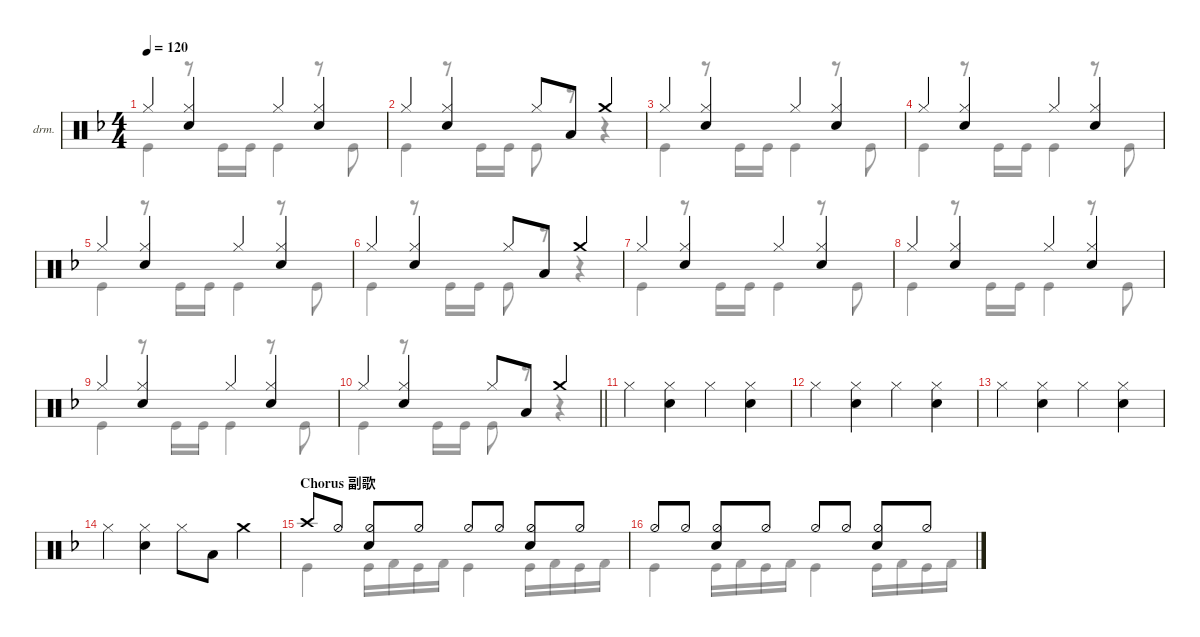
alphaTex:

\defaultSystemsLayout 4
\hideDynamics
\bracketExtendMode nobrackets
\firstSystemTrackNameOrientation horizontal
\track ("Drumkit" "drm.") {mute instrument percussion}
\staff {score}
\articulation defaults
\voice
\ts (4 4)
\tempo 120
\clef neutral
\ks dminor "Hi-Hat (closed)"{acc forcenatural}.4{dy mf}
("Snare (hit) 2"{acc forcenatural} "Hi-Hat (closed)"{acc forcenatural}).4 "Hi-Hat (closed)"{acc forcenatural}.4 ("Hi-Hat (closed)"{acc forcenatural} "Snare (hit) 2"{acc forcenatural}).4 |
"Hi-Hat (closed)"{acc forcenatural}.4 ("Snare (hit) 2"{acc forcenatural} "Hi-Hat (closed)"{acc forcenatural}).4 "Hi-Hat (closed)"{acc forcenatural}.8 "Low Floor Tom (hit)"{acc forcenatural}.8 "Crash medium (hit)"{acc forcenatural}.4 |
"Hi-Hat (closed)"{acc forcenatural}.4 ("Snare (hit) 2"{acc forcenatural} "Hi-Hat (closed)"{acc forcenatural}).4 "Hi-Hat (closed)"{acc forcenatural}.4 ("Hi-Hat (closed)"{acc forcenatural} "Snare (hit) 2"{acc forcenatural}).4 |
"Hi-Hat (closed)"{acc forcenatural}.4 ("Snare (hit) 2"{acc forcenatural} "Hi-Hat (closed)"{acc forcenatural}).4 "Hi-Hat (closed)"{acc forcenatural}.4 ("Hi-Hat (closed)"{acc forcenatural} "Snare (hit) 2"{acc forcenatural}).4 |
"Hi-Hat (closed)"{acc forcenatural}.4 ("Snare (hit) 2"{acc forcenatural} "Hi-Hat (closed)"{acc forcenatural}).4 "Hi-Hat (closed)"{acc forcenatural}.4 ("Hi-Hat (closed)"{acc forcenatural} "Snare (hit) 2"{acc forcenatural}).4 |
"Hi-Hat (closed)"{acc forcenatural}.4 ("Snare (hit) 2"{acc forcenatural} "Hi-Hat (closed)"{acc forcenatural}).4 "Hi-Hat (closed)"{acc forcenatural}.8 "Low Floor Tom (hit)"{acc forcenatural}.8 "Crash medium (hit)"{acc forcenatural}.4 |
"Hi-Hat (closed)"{acc forcenatural}.4 ("Snare (hit) 2"{acc forcenatural} "Hi-Hat (closed)"{acc forcenatural}).4 "Hi-Hat (closed)"{acc forcenatural}.4 ("Hi-Hat (closed)"{acc forcenatural} "Snare (hit) 2"{acc forcenatural}).4 |
"Hi-Hat (closed)"{acc forcenatural}.4 ("Snare (hit) 2"{acc forcenatural} "Hi-Hat (closed)"{acc forcenatural}).4 "Hi-Hat (closed)"{acc forcenatural}.4 ("Hi-Hat (closed)"{acc forcenatural} "Snare (hit) 2"{acc forcenatural}).4 |
"Hi-Hat (closed)"{acc forcenatural}.4 ("Snare (hit) 2"{acc forcenatural} "Hi-Hat (closed)"{acc forcenatural}).4 "Hi-Hat (closed)"{acc forcenatural}.4 ("Hi-Hat (closed)"{acc forcenatural} "Snare (hit) 2"{acc forcenatural}).4 |
\barLineRight lightlight "Hi-Hat (closed)"{acc forcenatural}.4
("Snare (hit) 2"{acc forcenatural} "Hi-Hat (closed)"{acc forcenatural}).4 "Hi-Hat (closed)"{acc forcenatural}.8 "Low Floor Tom (hit)"{acc forcenatural}.8 "Crash medium (hit)"{acc forcenatural}.4 |
"Hi-Hat (closed)"{acc forcenatural}.4 ("Snare (hit) 2"{acc forcenatural} "Hi-Hat (closed)"{acc forcenatural}).4 "Hi-Hat (closed)"{acc forcenatural}.4 ("Hi-Hat (closed)"{acc forcenatural} "Snare (hit) 2"{acc forcenatural}).4 |
"Hi-Hat (closed)"{acc forcenatural}.4 ("Snare (hit) 2"{acc forcenatural} "Hi-Hat (closed)"{acc forcenatural}).4 "Hi-Hat (closed)"{acc forcenatural}.4 ("Hi-Hat (closed)"{acc forcenatural} "Snare (hit) 2"{acc forcenatural}).4 |
"Hi-Hat (closed)"{acc forcenatural}.4 ("Snare (hit) 2"{acc forcenatural} "Hi-Hat (closed)"{acc forcenatural}).4 "Hi-Hat (closed)"{acc forcenatural}.4 ("Hi-Hat (closed)"{acc forcenatural} "Snare (hit) 2"{acc forcenatural}).4 |
"Hi-Hat (closed)"{acc forcenatural}.4 ("Snare (hit) 2"{acc forcenatural} "Hi-Hat (closed)"{acc forcenatural}).4 "Hi-Hat (closed)"{acc forcenatural}.8 "Low Floor Tom (hit)"{acc forcenatural}.8 "Crash medium (hit)"{acc forcenatural}.4 |
\section ("" "Chorus 副歌")
"Crash high (hit)"{acc forcenatural}.8 "Hi-Hat (half)"{acc forcenatural}.8 ("Hi-Hat (half)"{acc forcenatural} "Snare (hit) 2"{acc forcenatural}).8 "Hi-Hat (half)"{acc forcenatural}.8 "Hi-Hat (half)"{acc forcenatural}.8 "Hi-Hat (half)"{acc forcenatural}.8 ("Hi-Hat (half)"{acc forcenatural} "Snare (hit) 2"{acc forcenatural}).8 "Hi-Hat (half)"{acc forcenatural}.8 |
"Hi-Hat (half)"{acc forcenatural}.8 "Hi-Hat (half)"{acc forcenatural}.8 ("Hi-Hat (half)"{acc forcenatural} "Snare (hit) 2"{acc forcenatural}).8 "Hi-Hat (half)"{acc forcenatural}.8 "Hi-Hat (half)"{acc forcenatural}.8 "Hi-Hat (half)"{acc forcenatural}.8 ("Hi-Hat (half)"{acc forcenatural} "Snare (hit) 2"{acc forcenatural}).8 "Hi-Hat (half)"{acc forcenatural}.8
\voice
\clef neutral
\ottava regular
\simile none
\ks dminor "Kick (hit)"{acc forcenatural}.4{dy mf}
r.8 "Kick (hit)"{acc forcenatural}.16 "Kick (hit)"{acc forcenatural}.16 "Kick (hit)"{acc forcenatural}.4 r.8 "Kick (hit)"{acc forcenatural}.8 |
"Kick (hit)"{acc forcenatural}.4 r.8 "Kick (hit)"{acc forcenatural}.16 "Kick (hit)"{acc forcenatural}.16 "Kick (hit)"{acc forcenatural}.8 r.8 r.4 |
"Kick (hit)"{acc forcenatural}.4 r.8 "Kick (hit)"{acc forcenatural}.16 "Kick (hit)"{acc forcenatural}.16 "Kick (hit)"{acc forcenatural}.4 r.8 "Kick (hit)"{acc forcenatural}.8 |
"Kick (hit)"{acc forcenatural}.4 r.8 "Kick (hit)"{acc forcenatural}.16 "Kick (hit)"{acc forcenatural}.16 "Kick (hit)"{acc forcenatural}.4 r.8 "Kick (hit)"{acc forcenatural}.8 |
"Kick (hit)"{acc forcenatural}.4 r.8 "Kick (hit)"{acc forcenatural}.16 "Kick (hit)"{acc forcenatural}.16 "Kick (hit)"{acc forcenatural}.4 r.8 "Kick (hit)"{acc forcenatural}.8 |
"Kick (hit)"{acc forcenatural}.4 r.8 "Kick (hit)"{acc forcenatural}.16 "Kick (hit)"{acc forcenatural}.16 "Kick (hit)"{acc forcenatural}.8 r.8 r.4 |
"Kick (hit)"{acc forcenatural}.4 r.8 "Kick (hit)"{acc forcenatural}.16 "Kick (hit)"{acc forcenatural}.16 "Kick (hit)"{acc forcenatural}.4 r.8 "Kick (hit)"{acc forcenatural}.8 |
"Kick (hit)"{acc forcenatural}.4 r.8 "Kick (hit)"{acc forcenatural}.16 "Kick (hit)"{acc forcenatural}.16 "Kick (hit)"{acc forcenatural}.4 r.8 "Kick (hit)"{acc forcenatural}.8 |
"Kick (hit)"{acc forcenatural}.4 r.8 "Kick (hit)"{acc forcenatural}.16 "Kick (hit)"{acc forcenatural}.16 "Kick (hit)"{acc forcenatural}.4 r.8 "Kick (hit)"{acc forcenatural}.8 |
\barLineRight lightlight "Kick (hit)"{acc forcenatural}.4
r.8 "Kick (hit)"{acc forcenatural}.16 "Kick (hit)"{acc forcenatural}.16 "Kick (hit)"{acc forcenatural}.8 r.8 r.4 |
|
|
|
|
"Kick (hit)"{acc forcenatural}.4 "Kick (hit)"{acc forcenatural}.16 "Kick (hit) 2"{acc forcenatural}.16 "Kick (hit)"{acc forcenatural}.16 "Kick (hit) 2"{acc forcenatural}.16 "Kick (hit)"{acc forcenatural}.4 "Kick (hit)"{acc forcenatural}.16 "Kick (hit) 2"{acc forcenatural}.16 "Kick (hit)"{acc forcenatural}.16 "Kick (hit) 2"{acc forcenatural}.16 |
"Kick (hit)"{acc forcenatural}.4 "Kick (hit)"{acc forcenatural}.16 "Kick (hit) 2"{acc forcenatural}.16 "Kick (hit)"{acc forcenatural}.16 "Kick (hit) 2"{acc forcenatural}.16 "Kick (hit)"{acc forcenatural}.4 "Kick (hit)"{acc forcenatural}.16 "Kick (hit) 2"{acc forcenatural}.16 "Kick (hit)"{acc forcenatural}.16 "Kick (hit) 2"{acc forcenatural}.16
